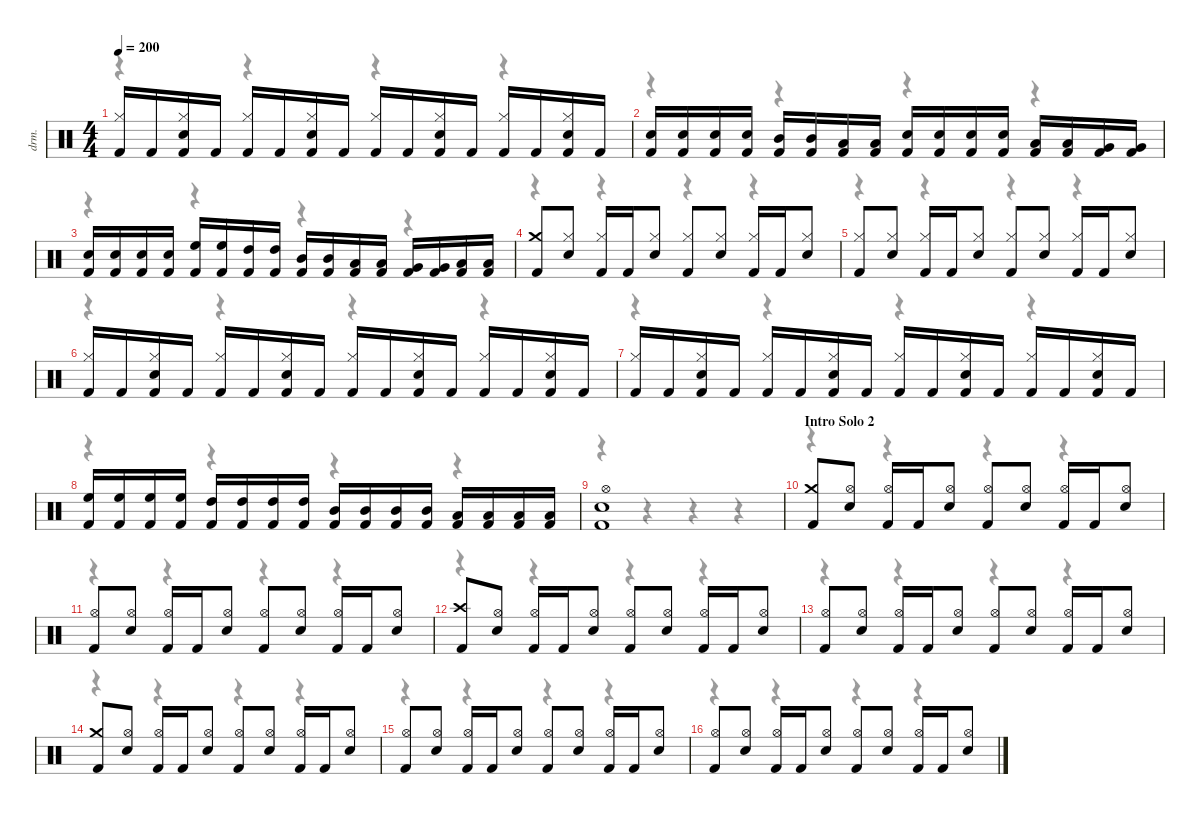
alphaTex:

\defaultSystemsLayout 4
\hideDynamics
\bracketExtendMode nobrackets
\otherSystemsTrackNameOrientation horizontal
\track ("David Mackintosh (Drums)" "drm.") {instrument percussion}
\staff {score}
\articulation defaults
\voice
\ts (4 4)
\tempo 200
\clef neutral
\ks c
("Kick (hit) 2" "Hi-Hat (closed)").16{dy f} "Kick (hit) 2".16 ("Kick (hit) 2" "Snare (hit) 2" "Hi-Hat (closed)").16 "Kick (hit) 2".16 ("Kick (hit) 2" "Hi-Hat (closed)").16 "Kick (hit) 2".16 ("Kick (hit) 2" "Snare (hit) 2" "Hi-Hat (closed)").16 "Kick (hit) 2".16 ("Kick (hit) 2" "Hi-Hat (closed)").16 "Kick (hit) 2".16 ("Kick (hit) 2" "Snare (hit) 2" "Hi-Hat (closed)").16 "Kick (hit) 2".16 ("Kick (hit) 2" "Hi-Hat (closed)").16 "Kick (hit) 2".16 ("Kick (hit) 2" "Snare (hit) 2" "Hi-Hat (closed)").16 "Kick (hit) 2".16 |
("Kick (hit) 2" "Snare (hit) 2").16 ("Kick (hit) 2" "Snare (hit) 2").16 ("Kick (hit) 2" "Snare (hit) 2").16 ("Kick (hit) 2" "Snare (hit) 2").16 ("Kick (hit) 2" "Mid Tom (hit)").16 ("Kick (hit) 2" "Mid Tom (hit)").16 ("Kick (hit) 2" "Low Tom (hit)").16 ("Kick (hit) 2" "Low Tom (hit)").16 ("Kick (hit) 2" "Snare (hit) 2").16 ("Kick (hit) 2" "Snare (hit) 2").16 ("Kick (hit) 2" "Snare (hit) 2").16 ("Kick (hit) 2" "Snare (hit) 2").16 ("Kick (hit) 2" "Low Tom (hit)").16 ("Kick (hit) 2" "Low Tom (hit)").16 ("Kick (hit) 2" "Very Low Tom (hit)").16 ("Kick (hit) 2" "Very Low Tom (hit)").16 |
("Kick (hit) 2" "Snare (hit) 2").16 ("Kick (hit) 2" "Snare (hit) 2").16 ("Kick (hit) 2" "Snare (hit) 2").16 ("Kick (hit) 2" "Snare (hit) 2").16 ("Kick (hit) 2" "High Floor Tom (hit)").16 ("Kick (hit) 2" "High Floor Tom (hit)").16 ("Kick (hit) 2" "High Tom (hit)").16 ("Kick (hit) 2" "High Tom (hit)").16 ("Kick (hit) 2" "Mid Tom (hit)").16 ("Kick (hit) 2" "Mid Tom (hit)").16 ("Kick (hit) 2" "Low Tom (hit)").16 ("Kick (hit) 2" "Low Tom (hit)").16 ("Kick (hit) 2" "Very Low Tom (hit)").16 ("Kick (hit) 2" "Very Low Tom (hit)").16 ("Kick (hit) 2" "Low Floor Tom (hit)").16 ("Kick (hit) 2" "Low Floor Tom (hit)").16 |
("Kick (hit) 2" "Crash medium (hit)").8 ("Snare (hit) 2" "Hi-Hat (closed)").8 ("Kick (hit) 2" "Hi-Hat (closed)").16 "Kick (hit) 2".16 ("Snare (hit) 2" "Hi-Hat (closed)").8 ("Kick (hit) 2" "Hi-Hat (closed)").8 ("Snare (hit) 2" "Hi-Hat (closed)").8 ("Kick (hit) 2" "Hi-Hat (closed)").16 "Kick (hit) 2".16 ("Snare (hit) 2" "Hi-Hat (closed)").8 |
("Kick (hit) 2" "Hi-Hat (closed)").8 ("Snare (hit) 2" "Hi-Hat (closed)").8 ("Kick (hit) 2" "Hi-Hat (closed)").16 "Kick (hit) 2".16 ("Snare (hit) 2" "Hi-Hat (closed)").8 ("Kick (hit) 2" "Hi-Hat (closed)").8 ("Snare (hit) 2" "Hi-Hat (closed)").8 ("Kick (hit) 2" "Hi-Hat (closed)").16 "Kick (hit) 2".16 ("Snare (hit) 2" "Hi-Hat (closed)").8 |
("Kick (hit) 2" "Hi-Hat (closed)").16 "Kick (hit) 2".16 ("Kick (hit) 2" "Snare (hit) 2" "Hi-Hat (closed)").16 "Kick (hit) 2".16 ("Kick (hit) 2" "Hi-Hat (closed)").16 "Kick (hit) 2".16 ("Kick (hit) 2" "Snare (hit) 2" "Hi-Hat (closed)").16 "Kick (hit) 2".16 ("Kick (hit) 2" "Hi-Hat (closed)").16 "Kick (hit) 2".16 ("Kick (hit) 2" "Snare (hit) 2" "Hi-Hat (closed)").16 "Kick (hit) 2".16 ("Kick (hit) 2" "Hi-Hat (closed)").16 "Kick (hit) 2".16 ("Kick (hit) 2" "Snare (hit) 2" "Hi-Hat (closed)").16 "Kick (hit) 2".16 |
("Kick (hit) 2" "Hi-Hat (closed)").16 "Kick (hit) 2".16 ("Kick (hit) 2" "Snare (hit) 2" "Hi-Hat (closed)").16 "Kick (hit) 2".16 ("Kick (hit) 2" "Hi-Hat (closed)").16 "Kick (hit) 2".16 ("Kick (hit) 2" "Snare (hit) 2" "Hi-Hat (closed)").16 "Kick (hit) 2".16 ("Kick (hit) 2" "Hi-Hat (closed)").16 "Kick (hit) 2".16 ("Kick (hit) 2" "Snare (hit) 2" "Hi-Hat (closed)").16 "Kick (hit) 2".16 ("Kick (hit) 2" "Hi-Hat (closed)").16 "Kick (hit) 2".16 ("Kick (hit) 2" "Snare (hit) 2" "Hi-Hat (closed)").16 "Kick (hit) 2".16 |
("Kick (hit) 2" "High Floor Tom (hit)").16 ("Kick (hit) 2" "High Floor Tom (hit)").16 ("Kick (hit) 2" "High Floor Tom (hit)").16 ("Kick (hit) 2" "High Floor Tom (hit)").16 ("Kick (hit) 2" "High Tom (hit)").16 ("Kick (hit) 2" "High Tom (hit)").16 ("Kick (hit) 2" "High Tom (hit)").16 ("Kick (hit) 2" "High Tom (hit)").16 ("Kick (hit) 2" "Mid Tom (hit)").16 ("Kick (hit) 2" "Mid Tom (hit)").16 ("Kick (hit) 2" "Mid Tom (hit)").16 ("Kick (hit) 2" "Mid Tom (hit)").16 ("Kick (hit) 2" "Low Tom (hit)").16 ("Kick (hit) 2" "Low Tom (hit)").16 ("Kick (hit) 2" "Low Tom (hit)").16 ("Kick (hit) 2" "Low Tom (hit)").16 |
("Kick (hit) 2" "Snare (hit) 2" "Hi-Hat (open)").1 |
\section ("" "Intro Solo 2")
("Kick (hit) 2" "Crash medium (hit)").8 ("Snare (hit) 2" "Hi-Hat (open)").8 ("Kick (hit) 2" "Hi-Hat (open)").16 "Kick (hit) 2".16 ("Snare (hit) 2" "Hi-Hat (open)").8 ("Kick (hit) 2" "Hi-Hat (open)").8 ("Snare (hit) 2" "Hi-Hat (open)").8 ("Kick (hit) 2" "Hi-Hat (open)").16 "Kick (hit) 2".16 ("Snare (hit) 2" "Hi-Hat (open)").8 |
("Kick (hit) 2" "Hi-Hat (open)").8 ("Snare (hit) 2" "Hi-Hat (open)").8 ("Kick (hit) 2" "Hi-Hat (open)").16 "Kick (hit) 2".16 ("Snare (hit) 2" "Hi-Hat (open)").8 ("Kick (hit) 2" "Hi-Hat (open)").8 ("Snare (hit) 2" "Hi-Hat (open)").8 ("Kick (hit) 2" "Hi-Hat (open)").16 "Kick (hit) 2".16 ("Snare (hit) 2" "Hi-Hat (open)").8 |
("Kick (hit) 2" "Crash high (hit)").8 ("Snare (hit) 2" "Hi-Hat (open)").8 ("Kick (hit) 2" "Hi-Hat (open)").16 "Kick (hit) 2".16 ("Snare (hit) 2" "Hi-Hat (open)").8 ("Kick (hit) 2" "Hi-Hat (open)").8 ("Snare (hit) 2" "Hi-Hat (open)").8 ("Kick (hit) 2" "Hi-Hat (open)").16 "Kick (hit) 2".16 ("Snare (hit) 2" "Hi-Hat (open)").8 |
("Kick (hit) 2" "Hi-Hat (open)").8 ("Snare (hit) 2" "Hi-Hat (open)").8 ("Kick (hit) 2" "Hi-Hat (open)").16 "Kick (hit) 2".16 ("Snare (hit) 2" "Hi-Hat (open)").8 ("Kick (hit) 2" "Hi-Hat (open)").8 ("Snare (hit) 2" "Hi-Hat (open)").8 ("Kick (hit) 2" "Hi-Hat (open)").16 "Kick (hit) 2".16 ("Snare (hit) 2" "Hi-Hat (open)").8 |
("Kick (hit) 2" "Crash medium (hit)").8 ("Snare (hit) 2" "Hi-Hat (open)").8 ("Kick (hit) 2" "Hi-Hat (open)").16 "Kick (hit) 2".16 ("Snare (hit) 2" "Hi-Hat (open)").8 ("Kick (hit) 2" "Hi-Hat (open)").8 ("Snare (hit) 2" "Hi-Hat (open)").8 ("Kick (hit) 2" "Hi-Hat (open)").16 "Kick (hit) 2".16 ("Snare (hit) 2" "Hi-Hat (open)").8 |
("Kick (hit) 2" "Hi-Hat (open)").8 ("Snare (hit) 2" "Hi-Hat (open)").8 ("Kick (hit) 2" "Hi-Hat (open)").16 "Kick (hit) 2".16 ("Snare (hit) 2" "Hi-Hat (open)").8 ("Kick (hit) 2" "Hi-Hat (open)").8 ("Snare (hit) 2" "Hi-Hat (open)").8 ("Kick (hit) 2" "Hi-Hat (open)").16 "Kick (hit) 2".16 ("Snare (hit) 2" "Hi-Hat (open)").8 |
("Kick (hit) 2" "Hi-Hat (open)").8 ("Snare (hit) 2" "Hi-Hat (open)").8 ("Kick (hit) 2" "Hi-Hat (open)").16 "Kick (hit) 2".16 ("Snare (hit) 2" "Hi-Hat (open)").8 ("Kick (hit) 2" "Hi-Hat (open)").8 ("Snare (hit) 2" "Hi-Hat (open)").8 ("Kick (hit) 2" "Hi-Hat (open)").16 "Kick (hit) 2".16 ("Snare (hit) 2" "Hi-Hat (open)").8
\voice
\clef neutral
\ottava regular
\simile none
\ks c
r.4{dy mf} r.4 r.4 r.4 |
r.4 r.4 r.4 r.4 |
r.4 r.4 r.4 r.4 |
r.4 r.4 r.4 r.4 |
r.4 r.4 r.4 r.4 |
r.4 r.4 r.4 r.4 |
r.4 r.4 r.4 r.4 |
r.4 r.4 r.4 r.4 |
r.4 r.4 r.4 r.4 |
r.4 r.4 r.4 r.4 |
r.4 r.4 r.4 r.4 |
r.4 r.4 r.4 r.4 |
r.4 r.4 r.4 r.4 |
r.4 r.4 r.4 r.4 |
r.4 r.4 r.4 r.4 |
r.4 r.4 r.4 r.4
